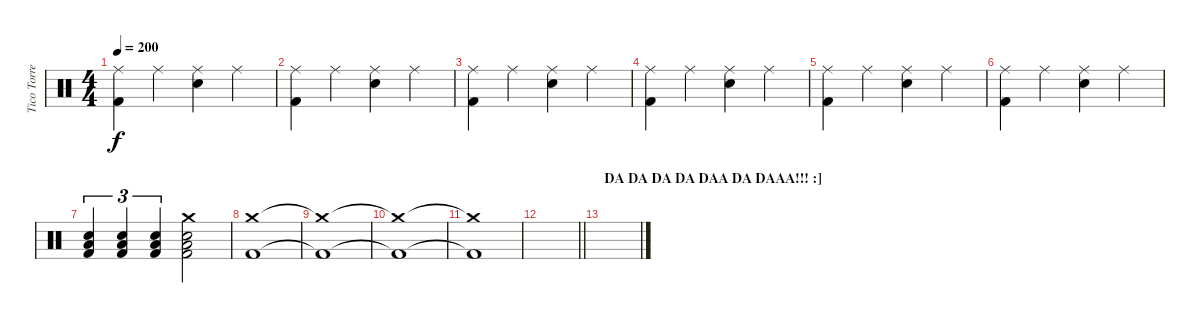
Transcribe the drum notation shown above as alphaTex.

\track ("Tico Torres" "Tico Torre") {instrument percussion}
\staff {score}
\articulation defaults
\ts (4 4)
\tempo 200
\clef neutral
\ks c
("Ride (middle)" "Kick (hit) 2").4{dy f} "Ride (middle)".4 ("Snare (hit) 2" "Ride (middle)").4 "Ride (middle)".4 |
("Ride (middle)" "Kick (hit) 2").4 "Ride (middle)".4 ("Snare (hit) 2" "Ride (middle)").4 "Ride (middle)".4 |
("Ride (middle)" "Kick (hit) 2").4 "Ride (middle)".4 ("Snare (hit) 2" "Ride (middle)").4 "Ride (middle)".4 |
("Ride (middle)" "Kick (hit) 2").4 "Ride (middle)".4 ("Snare (hit) 2" "Ride (middle)").4 "Ride (middle)".4 |
("Ride (middle)" "Kick (hit) 2").4 "Ride (middle)".4 ("Snare (hit) 2" "Ride (middle)").4 "Ride (middle)".4 |
("Ride (middle)" "Kick (hit) 2").4 "Ride (middle)".4 ("Snare (hit) 2" "Ride (middle)").4 "Ride (middle)".4 |
("Snare (hit) 2" "Low Tom (hit)" "Kick (hit) 2").4{tu (3 2)} ("Snare (hit) 2" "Low Tom (hit)" "Kick (hit) 2").4{tu (3 2)} ("Snare (hit) 2" "Low Tom (hit)" "Kick (hit) 2").4{tu (3 2)} ("Crash medium (hit)" "Snare (hit) 2" "Low Tom (hit)" "Kick (hit) 2").2 |
("Crash medium (hit)" "Kick (hit) 2").1 |
("Crash medium (hit)"{t} "Kick (hit) 2"{t}).1 |
("Crash medium (hit)"{t} "Kick (hit) 2"{t}).1 |
("Crash medium (hit)"{t} "Kick (hit) 2"{t}).1 |
\barLineRight lightlight
|
\section ("" "DA DA DA DA DAA DA DAAA!!! :]")
